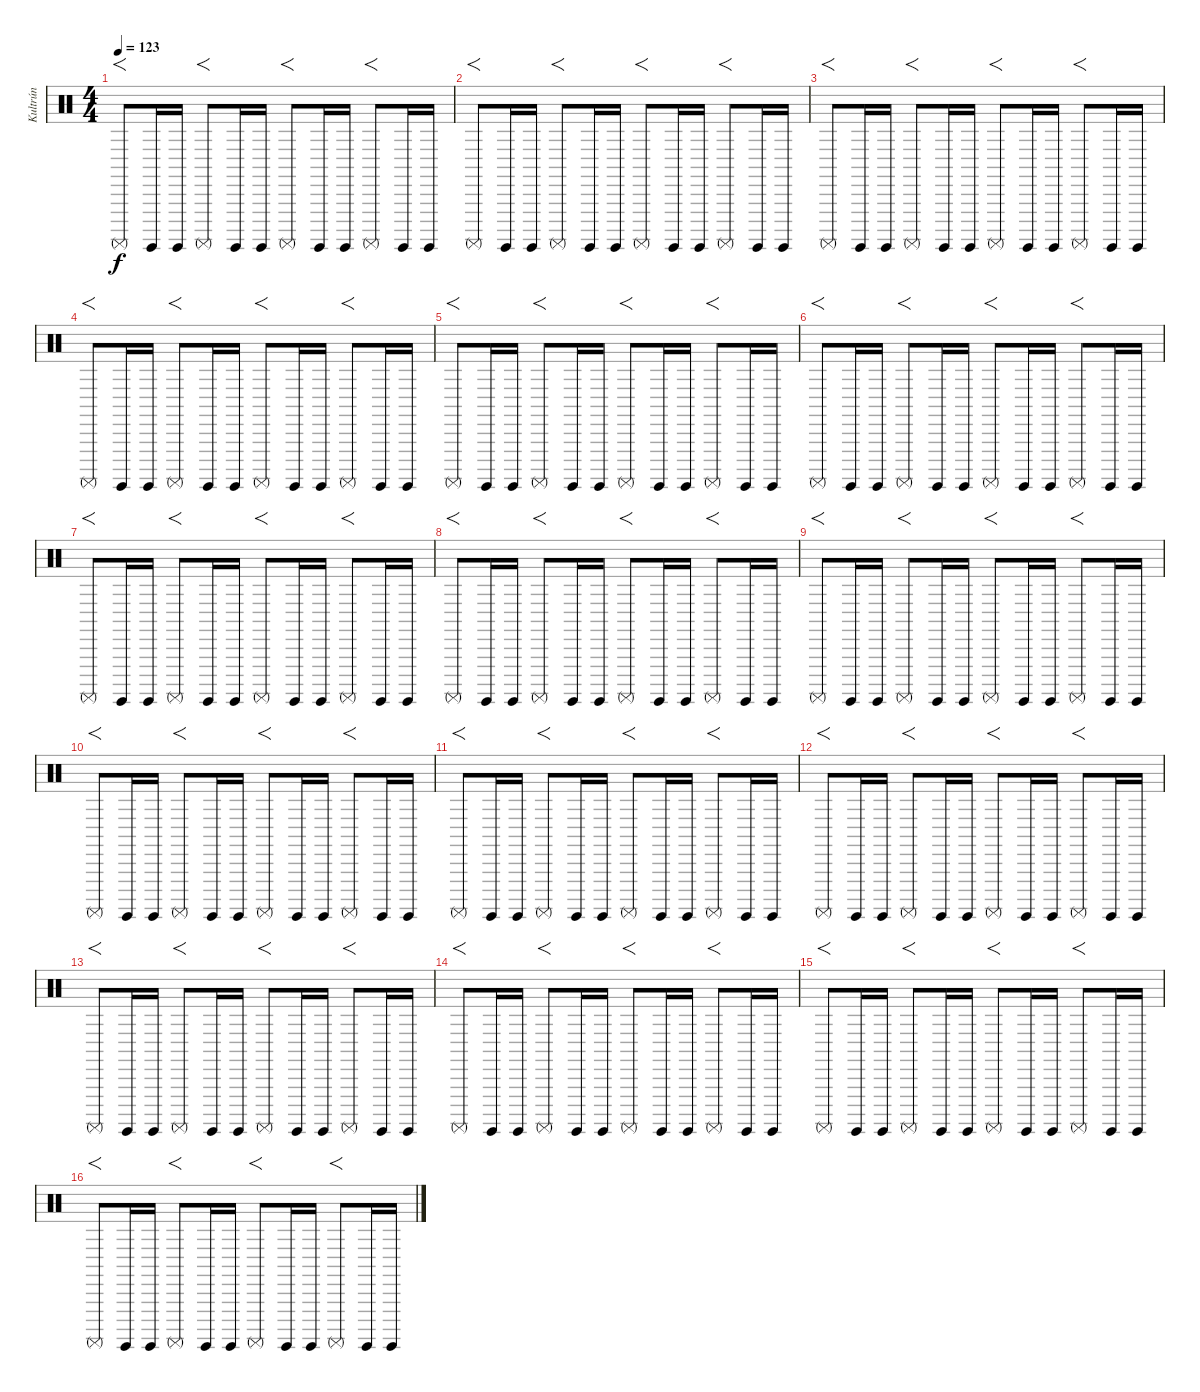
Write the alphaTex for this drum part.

\track ("Kultrún" "Kultrún") {instrument percussion}
\staff {score}
\articulation defaults
\ts (4 4)
\tempo 123
\clef neutral
\ks c "Surdo (mute)".8{f dy f} "Surdo (hit)".16 "Surdo (hit)".16 "Surdo (mute)".8{f} "Surdo (hit)".16 "Surdo (hit)".16 "Surdo (mute)".8{f} "Surdo (hit)".16 "Surdo (hit)".16 "Surdo (mute)".8{f} "Surdo (hit)".16 "Surdo (hit)".16
|
"Surdo (mute)".8{f} "Surdo (hit)".16 "Surdo (hit)".16 "Surdo (mute)".8{f} "Surdo (hit)".16 "Surdo (hit)".16 "Surdo (mute)".8{f} "Surdo (hit)".16 "Surdo (hit)".16 "Surdo (mute)".8{f} "Surdo (hit)".16 "Surdo (hit)".16 |
"Surdo (mute)".8{f} "Surdo (hit)".16 "Surdo (hit)".16 "Surdo (mute)".8{f} "Surdo (hit)".16 "Surdo (hit)".16 "Surdo (mute)".8{f} "Surdo (hit)".16 "Surdo (hit)".16 "Surdo (mute)".8{f} "Surdo (hit)".16 "Surdo (hit)".16 |
"Surdo (mute)".8{f} "Surdo (hit)".16 "Surdo (hit)".16 "Surdo (mute)".8{f} "Surdo (hit)".16 "Surdo (hit)".16 "Surdo (mute)".8{f} "Surdo (hit)".16 "Surdo (hit)".16 "Surdo (mute)".8{f} "Surdo (hit)".16 "Surdo (hit)".16 |
"Surdo (mute)".8{f} "Surdo (hit)".16 "Surdo (hit)".16 "Surdo (mute)".8{f} "Surdo (hit)".16 "Surdo (hit)".16 "Surdo (mute)".8{f} "Surdo (hit)".16 "Surdo (hit)".16 "Surdo (mute)".8{f} "Surdo (hit)".16 "Surdo (hit)".16 |
"Surdo (mute)".8{f} "Surdo (hit)".16 "Surdo (hit)".16 "Surdo (mute)".8{f} "Surdo (hit)".16 "Surdo (hit)".16 "Surdo (mute)".8{f} "Surdo (hit)".16 "Surdo (hit)".16 "Surdo (mute)".8{f} "Surdo (hit)".16 "Surdo (hit)".16 |
"Surdo (mute)".8{f} "Surdo (hit)".16 "Surdo (hit)".16 "Surdo (mute)".8{f} "Surdo (hit)".16 "Surdo (hit)".16 "Surdo (mute)".8{f} "Surdo (hit)".16 "Surdo (hit)".16 "Surdo (mute)".8{f} "Surdo (hit)".16 "Surdo (hit)".16 |
"Surdo (mute)".8{f} "Surdo (hit)".16 "Surdo (hit)".16 "Surdo (mute)".8{f} "Surdo (hit)".16 "Surdo (hit)".16 "Surdo (mute)".8{f} "Surdo (hit)".16 "Surdo (hit)".16 "Surdo (mute)".8{f} "Surdo (hit)".16 "Surdo (hit)".16 |
"Surdo (mute)".8{f} "Surdo (hit)".16 "Surdo (hit)".16 "Surdo (mute)".8{f} "Surdo (hit)".16 "Surdo (hit)".16 "Surdo (mute)".8{f} "Surdo (hit)".16 "Surdo (hit)".16 "Surdo (mute)".8{f} "Surdo (hit)".16 "Surdo (hit)".16 |
"Surdo (mute)".8{f} "Surdo (hit)".16 "Surdo (hit)".16 "Surdo (mute)".8{f} "Surdo (hit)".16 "Surdo (hit)".16 "Surdo (mute)".8{f} "Surdo (hit)".16 "Surdo (hit)".16 "Surdo (mute)".8{f} "Surdo (hit)".16 "Surdo (hit)".16 |
"Surdo (mute)".8{f} "Surdo (hit)".16 "Surdo (hit)".16 "Surdo (mute)".8{f} "Surdo (hit)".16 "Surdo (hit)".16 "Surdo (mute)".8{f} "Surdo (hit)".16 "Surdo (hit)".16 "Surdo (mute)".8{f} "Surdo (hit)".16 "Surdo (hit)".16 |
"Surdo (mute)".8{f} "Surdo (hit)".16 "Surdo (hit)".16 "Surdo (mute)".8{f} "Surdo (hit)".16 "Surdo (hit)".16 "Surdo (mute)".8{f} "Surdo (hit)".16 "Surdo (hit)".16 "Surdo (mute)".8{f} "Surdo (hit)".16 "Surdo (hit)".16 |
"Surdo (mute)".8{f} "Surdo (hit)".16 "Surdo (hit)".16 "Surdo (mute)".8{f} "Surdo (hit)".16 "Surdo (hit)".16 "Surdo (mute)".8{f} "Surdo (hit)".16 "Surdo (hit)".16 "Surdo (mute)".8{f} "Surdo (hit)".16 "Surdo (hit)".16 |
"Surdo (mute)".8{f} "Surdo (hit)".16 "Surdo (hit)".16 "Surdo (mute)".8{f} "Surdo (hit)".16 "Surdo (hit)".16 "Surdo (mute)".8{f} "Surdo (hit)".16 "Surdo (hit)".16 "Surdo (mute)".8{f} "Surdo (hit)".16 "Surdo (hit)".16 |
"Surdo (mute)".8{f} "Surdo (hit)".16 "Surdo (hit)".16 "Surdo (mute)".8{f} "Surdo (hit)".16 "Surdo (hit)".16 "Surdo (mute)".8{f} "Surdo (hit)".16 "Surdo (hit)".16 "Surdo (mute)".8{f} "Surdo (hit)".16 "Surdo (hit)".16 |
"Surdo (mute)".8{f} "Surdo (hit)".16 "Surdo (hit)".16 "Surdo (mute)".8{f} "Surdo (hit)".16 "Surdo (hit)".16 "Surdo (mute)".8{f} "Surdo (hit)".16 "Surdo (hit)".16 "Surdo (mute)".8{f} "Surdo (hit)".16 "Surdo (hit)".16
